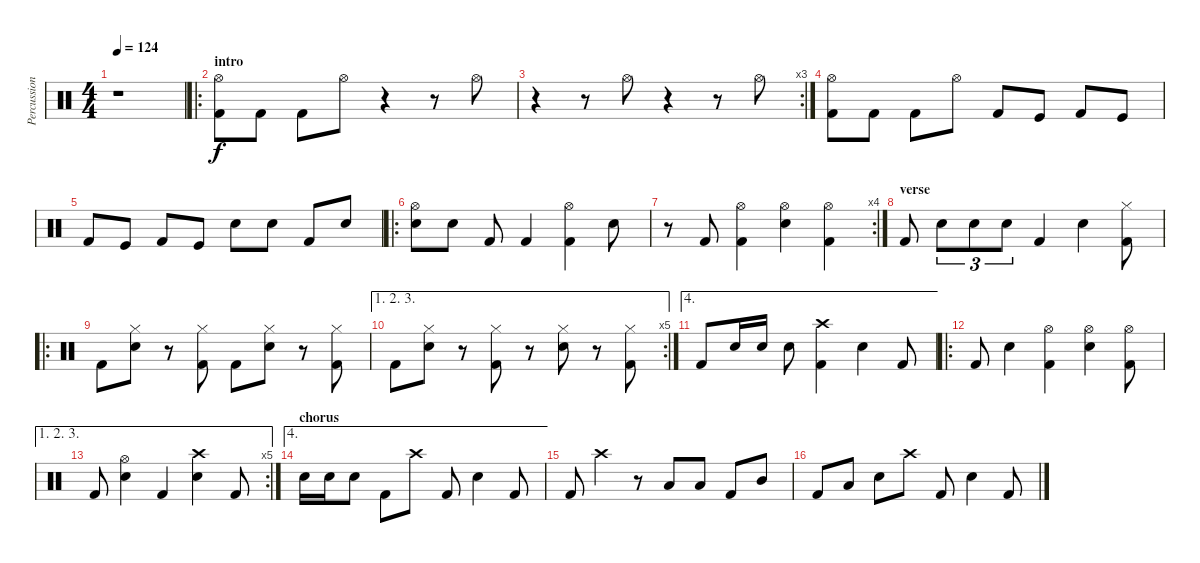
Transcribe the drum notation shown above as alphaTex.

\track ("Percussion" "Percussion") {instrument percussion}
\staff {score}
\articulation defaults
\ts (4 4)
\tempo 124
\clef neutral
\ks c
r.1{dy f} |
\ro
\section ("" "intro")
("Hi-Hat (open)" "Kick (hit) 2").8 "Kick (hit) 2".8 "Kick (hit) 2".8 "Hi-Hat (open)".8 r.4 r.8 "Hi-Hat (open)".8 |
\rc 3
r.4 r.8 "Hi-Hat (open)".8 r.4 r.8 "Hi-Hat (open)".8 |
("Hi-Hat (open)" "Kick (hit) 2").8 "Kick (hit) 2".8 "Kick (hit) 2".8 "Hi-Hat (open)".8 "Kick (hit) 2".8 "Kick (hit)".8 "Kick (hit) 2".8 "Kick (hit)".8 |
"Kick (hit) 2".8 "Kick (hit)".8 "Kick (hit) 2".8 "Kick (hit)".8 "Electric Snare (hit)".8 "Electric Snare (hit)".8 "Kick (hit) 2".8 "Electric Snare (hit)".8 |
\ro
("Hi-Hat (open)" "Electric Snare (hit)").8 "Electric Snare (hit)".8 "Kick (hit) 2".8 "Kick (hit) 2".4 ("Hi-Hat (open)" "Kick (hit) 2").4 "Electric Snare (hit)".8 |
\rc 4
r.8 "Kick (hit) 2".8 ("Hi-Hat (open)" "Kick (hit) 2").4 ("Hi-Hat (open)" "Electric Snare (hit)").4 ("Hi-Hat (open)" "Kick (hit) 2").4 |
\section ("" "verse")
"Kick (hit) 2".8 "Electric Snare (hit)".8{tu (3 2)} "Electric Snare (hit)".8{tu (3 2)} "Electric Snare (hit)".8{tu (3 2)} "Kick (hit) 2".4 "Electric Snare (hit)".4 ("Hi-Hat (closed)" "Kick (hit) 2").8 |
\ro "Kick (hit) 2".8
("Hi-Hat (closed)" "Electric Snare (hit)").8 r.8 ("Hi-Hat (closed)" "Kick (hit) 2").8 "Kick (hit) 2".8 ("Hi-Hat (closed)" "Electric Snare (hit)").8 r.8 ("Hi-Hat (closed)" "Kick (hit) 2").8 |
\ae (1 2 3)
\rc 5 "Kick (hit) 2".8
("Hi-Hat (closed)" "Electric Snare (hit)").8 r.8 ("Hi-Hat (closed)" "Kick (hit) 2").8 r.8 ("Hi-Hat (closed)" "Electric Snare (hit)").8 r.8 ("Hi-Hat (closed)" "Kick (hit) 2").8 |
\ae 4 "Kick (hit) 2".8 "Electric Snare (hit)".16 "Electric Snare (hit)".16 "Electric Snare (hit)".8
("Crash high (hit)" "Kick (hit) 2").4 "Electric Snare (hit)".4 "Kick (hit) 2".8 |
\ro "Kick (hit) 2".8 "Electric Snare (hit)".4
("Hi-Hat (open)" "Kick (hit) 2").4 ("Hi-Hat (open)" "Electric Snare (hit)").4 ("Hi-Hat (open)" "Kick (hit) 2").8 |
\ae (1 2 3)
\rc 5 "Kick (hit) 2".8
("Hi-Hat (open)" "Electric Snare (hit)").4 "Kick (hit) 2".4 ("Crash high (hit)" "Electric Snare (hit)").4 "Kick (hit) 2".8 |
\ae 4
\section ("" "chorus")
"Electric Snare (hit)".16 "Electric Snare (hit)".16 "Electric Snare (hit)".8 "Kick (hit) 2".8 "Crash high (hit)".8 "Kick (hit) 2".8 "Electric Snare (hit)".4 "Kick (hit) 2".8 |
"Kick (hit) 2".8 "Crash high (hit)".4 r.8 "Low Tom (hit)".8 "Low Tom (hit)".8 "Kick (hit) 2".8 "Mid Tom (hit)".8 |
"Kick (hit) 2".8 "Low Tom (hit)".8 "Electric Snare (hit)".8 "Crash high (hit)".8 "Kick (hit) 2".8 "Electric Snare (hit)".4 "Kick (hit) 2".8
